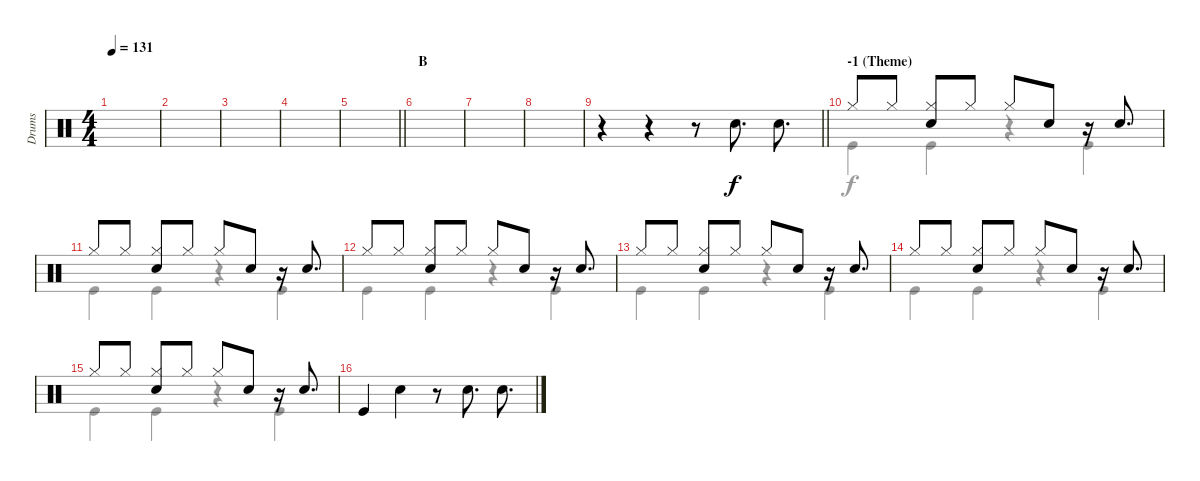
\track ("Drums" "Drums") {instrument percussion}
\staff {score}
\articulation defaults
\voice
\ts (4 4)
\tempo 131
\clef neutral
\ks c
|
|
|
|
\barLineRight lightlight
|
\section ("" "B")
|
|
|
\barLineRight lightlight
r.4 r.4 r.8 "Snare (hit) 2".8{d} "Snare (hit) 2".8{d} |
\section ("" "-1 (Theme)")
"Hi-Hat (closed)".8 "Hi-Hat (closed)".8 ("Hi-Hat (closed)" "Snare (hit) 2").8 "Hi-Hat (closed)".8 "Hi-Hat (closed)".8 "Snare (hit) 2".8 r.16 "Snare (hit) 2".8{d} |
"Hi-Hat (closed)".8 "Hi-Hat (closed)".8 ("Hi-Hat (closed)" "Snare (hit) 2").8 "Hi-Hat (closed)".8 "Hi-Hat (closed)".8 "Snare (hit) 2".8 r.16 "Snare (hit) 2".8{d} |
"Hi-Hat (closed)".8 "Hi-Hat (closed)".8 ("Hi-Hat (closed)" "Snare (hit) 2").8 "Hi-Hat (closed)".8 "Hi-Hat (closed)".8 "Snare (hit) 2".8 r.16 "Snare (hit) 2".8{d} |
"Hi-Hat (closed)".8 "Hi-Hat (closed)".8 ("Hi-Hat (closed)" "Snare (hit) 2").8 "Hi-Hat (closed)".8 "Hi-Hat (closed)".8 "Snare (hit) 2".8 r.16 "Snare (hit) 2".8{d} |
"Hi-Hat (closed)".8 "Hi-Hat (closed)".8 ("Hi-Hat (closed)" "Snare (hit) 2").8 "Hi-Hat (closed)".8 "Hi-Hat (closed)".8 "Snare (hit) 2".8 r.16 "Snare (hit) 2".8{d} |
"Hi-Hat (closed)".8 "Hi-Hat (closed)".8 ("Hi-Hat (closed)" "Snare (hit) 2").8 "Hi-Hat (closed)".8 "Hi-Hat (closed)".8 "Snare (hit) 2".8 r.16 "Snare (hit) 2".8{d} |
"Kick (hit)".4 "Snare (hit) 2".4 r.8 "Snare (hit) 2".8{d} "Snare (hit) 2".8{d}
\voice
\clef neutral
\ottava regular
\simile none
\ks c
|
|
|
|
\barLineRight lightlight
|
|
|
|
\barLineRight lightlight
|
"Kick (hit)".4 "Kick (hit)".4 r.4 "Kick (hit)".4 |
"Kick (hit)".4 "Kick (hit)".4 r.4 "Kick (hit)".4 |
"Kick (hit)".4 "Kick (hit)".4 r.4 "Kick (hit)".4 |
"Kick (hit)".4 "Kick (hit)".4 r.4 "Kick (hit)".4 |
"Kick (hit)".4 "Kick (hit)".4 r.4 "Kick (hit)".4 |
"Kick (hit)".4 "Kick (hit)".4 r.4 "Kick (hit)".4 |
